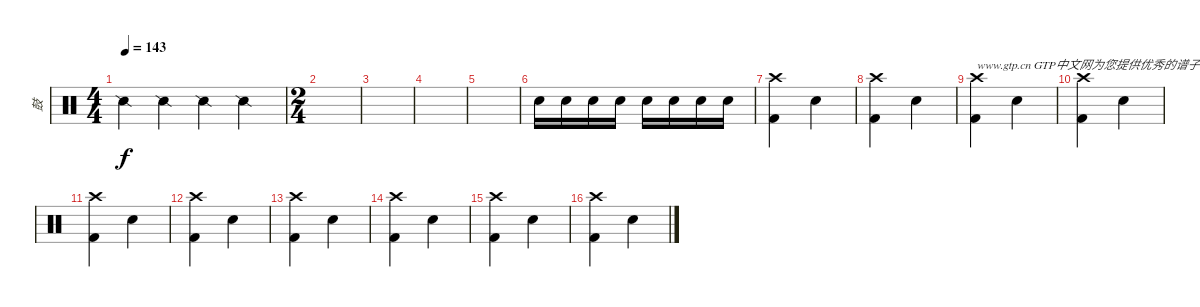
\track ("鼓" "鼓") {instrument percussion}
\staff {score}
\articulation defaults
\ts (4 4)
\tempo 143
\clef neutral
\ks c "Snare (side stick) 2".4{dy f} "Snare (side stick) 2".4 "Snare (side stick) 2".4 "Snare (side stick) 2".4
|
\ts (2 4)
|
|
|
|
"Electric Snare (hit)".16 "Electric Snare (hit)".16 "Electric Snare (hit)".16 "Electric Snare (hit)".16 "Electric Snare (hit)".16 "Electric Snare (hit)".16 "Electric Snare (hit)".16 "Electric Snare (hit)".16 |
("Kick (hit) 2" "Crash high (hit)").4 "Hand Clap (hit)".4 |
("Kick (hit) 2" "Crash high (hit)").4 "Hand Clap (hit)".4 |
("Kick (hit) 2" "Crash high (hit)").4{txt "www.gtp.cn GTP中文网为您提供优秀的谱子"} "Hand Clap (hit)".4 |
("Kick (hit) 2" "Crash high (hit)").4 "Hand Clap (hit)".4 |
("Kick (hit) 2" "Crash high (hit)").4 "Hand Clap (hit)".4 |
("Kick (hit) 2" "Crash high (hit)").4 "Hand Clap (hit)".4 |
("Kick (hit) 2" "Crash high (hit)").4 "Hand Clap (hit)".4 |
("Kick (hit) 2" "Crash high (hit)").4 "Hand Clap (hit)".4 |
("Kick (hit) 2" "Crash high (hit)").4 "Hand Clap (hit)".4 |
("Kick (hit) 2" "Crash high (hit)").4 "Hand Clap (hit)".4
